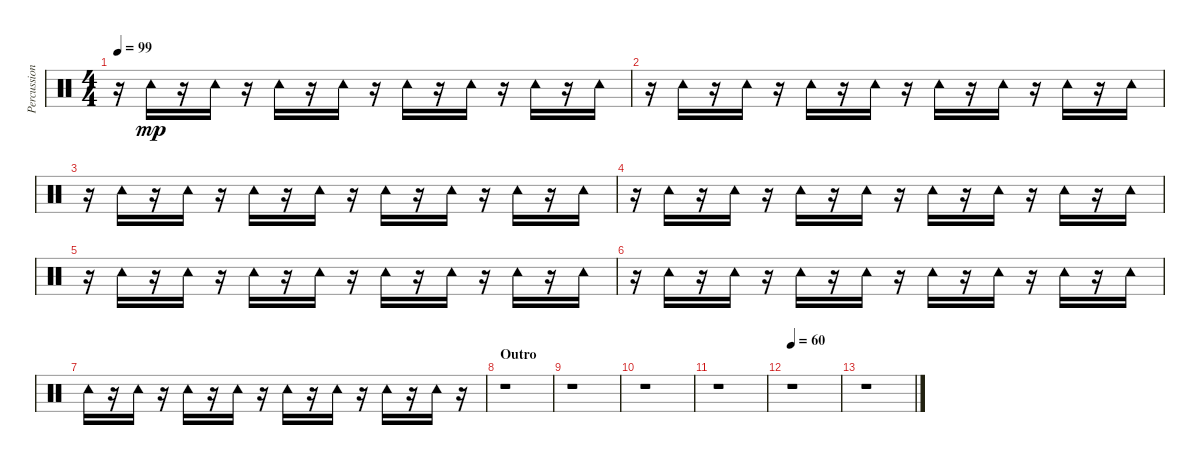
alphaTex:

\track ("Percussion" "Percussion") {instrument percussion}
\staff {score}
\articulation defaults
\ts (4 4)
\tempo 99
\clef neutral
\ks c
r.16{dy mp} "Tambourine (hit)".16 r.16 "Tambourine (hit)".16 r.16 "Tambourine (hit)".16 r.16 "Tambourine (hit)".16 r.16 "Tambourine (hit)".16 r.16 "Tambourine (hit)".16 r.16 "Tambourine (hit)".16 r.16 "Tambourine (hit)".16 |
r.16 "Tambourine (hit)".16 r.16 "Tambourine (hit)".16 r.16 "Tambourine (hit)".16 r.16 "Tambourine (hit)".16 r.16 "Tambourine (hit)".16 r.16 "Tambourine (hit)".16 r.16 "Tambourine (hit)".16 r.16 "Tambourine (hit)".16 |
r.16 "Tambourine (hit)".16 r.16 "Tambourine (hit)".16 r.16 "Tambourine (hit)".16 r.16 "Tambourine (hit)".16 r.16 "Tambourine (hit)".16 r.16 "Tambourine (hit)".16 r.16 "Tambourine (hit)".16 r.16 "Tambourine (hit)".16 |
r.16 "Tambourine (hit)".16 r.16 "Tambourine (hit)".16 r.16 "Tambourine (hit)".16 r.16 "Tambourine (hit)".16 r.16 "Tambourine (hit)".16 r.16 "Tambourine (hit)".16 r.16 "Tambourine (hit)".16 r.16 "Tambourine (hit)".16 |
r.16 "Tambourine (hit)".16 r.16 "Tambourine (hit)".16 r.16 "Tambourine (hit)".16 r.16 "Tambourine (hit)".16 r.16 "Tambourine (hit)".16 r.16 "Tambourine (hit)".16 r.16 "Tambourine (hit)".16 r.16 "Tambourine (hit)".16 |
r.16 "Tambourine (hit)".16 r.16 "Tambourine (hit)".16 r.16 "Tambourine (hit)".16 r.16 "Tambourine (hit)".16 r.16 "Tambourine (hit)".16 r.16 "Tambourine (hit)".16 r.16 "Tambourine (hit)".16 r.16 "Tambourine (hit)".16 |
"Tambourine (hit)".16 r.16 "Tambourine (hit)".16 r.16 "Tambourine (hit)".16 r.16 "Tambourine (hit)".16 r.16 "Tambourine (hit)".16 r.16 "Tambourine (hit)".16 r.16 "Tambourine (hit)".16 r.16 "Tambourine (hit)".16 r.16 |
\section ("" "Outro")
r.1 |
r.1 |
r.1 |
r.1 |
\tempo 60
r.1 |
r.1
